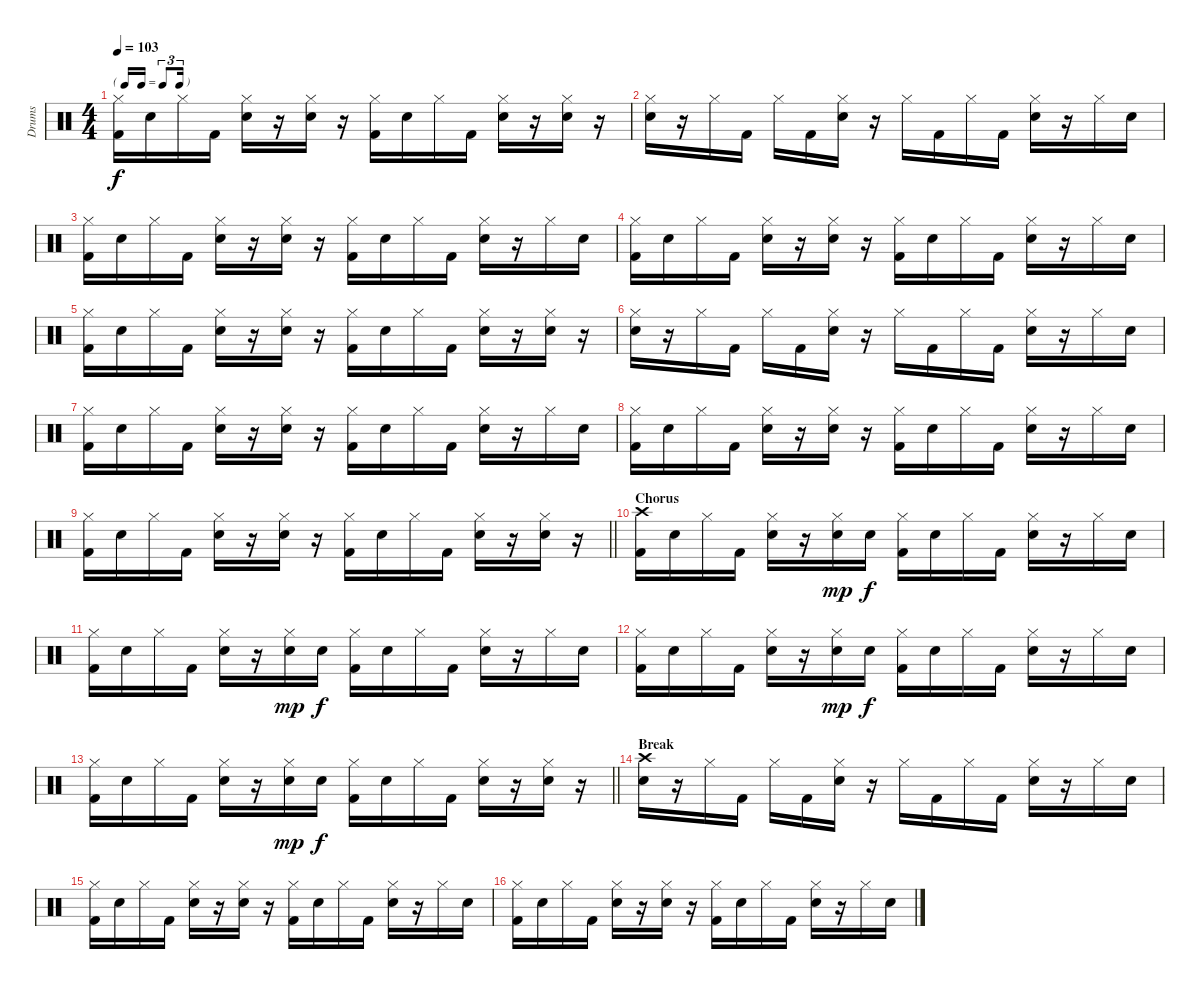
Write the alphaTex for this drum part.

\track ("Drums" "Drums") {instrument percussion}
\staff {score}
\articulation defaults
\ts (4 4)
\tf triplet16th
\tempo 103
\clef neutral
\ks c
("Hi-Hat (closed)" "Kick (hit) 2").16{dy f} "Electric Snare (hit)".16 "Hi-Hat (closed)".16 "Kick (hit) 2".16 ("Hi-Hat (closed)" "Electric Snare (hit)").16 r.16 ("Hi-Hat (closed)" "Electric Snare (hit)").16 r.16 ("Hi-Hat (closed)" "Kick (hit) 2").16 "Electric Snare (hit)".16 "Hi-Hat (closed)".16 "Kick (hit) 2".16 ("Hi-Hat (closed)" "Electric Snare (hit)").16 r.16 ("Hi-Hat (closed)" "Electric Snare (hit)").16 r.16 |
("Hi-Hat (closed)" "Electric Snare (hit)").16 r.16 "Hi-Hat (closed)".16 "Kick (hit) 2".16 "Hi-Hat (closed)".16 "Kick (hit) 2".16 ("Hi-Hat (closed)" "Electric Snare (hit)").16 r.16 "Hi-Hat (closed)".16 "Kick (hit) 2".16 "Hi-Hat (closed)".16 "Kick (hit) 2".16 ("Hi-Hat (closed)" "Electric Snare (hit)").16 r.16 "Hi-Hat (closed)".16 "Electric Snare (hit)".16 |
("Hi-Hat (closed)" "Kick (hit) 2").16 "Electric Snare (hit)".16 "Hi-Hat (closed)".16 "Kick (hit) 2".16 ("Hi-Hat (closed)" "Electric Snare (hit)").16 r.16 ("Hi-Hat (closed)" "Electric Snare (hit)").16 r.16 ("Hi-Hat (closed)" "Kick (hit) 2").16 "Electric Snare (hit)".16 "Hi-Hat (closed)".16 "Kick (hit) 2".16 ("Hi-Hat (closed)" "Electric Snare (hit)").16 r.16 "Hi-Hat (closed)".16 "Electric Snare (hit)".16 |
("Hi-Hat (closed)" "Kick (hit) 2").16 "Electric Snare (hit)".16 "Hi-Hat (closed)".16 "Kick (hit) 2".16 ("Hi-Hat (closed)" "Electric Snare (hit)").16 r.16 ("Hi-Hat (closed)" "Electric Snare (hit)").16 r.16 ("Hi-Hat (closed)" "Kick (hit) 2").16 "Electric Snare (hit)".16 "Hi-Hat (closed)".16 "Kick (hit) 2".16 ("Hi-Hat (closed)" "Electric Snare (hit)").16 r.16 "Hi-Hat (closed)".16 "Electric Snare (hit)".16 |
("Hi-Hat (closed)" "Kick (hit) 2").16 "Electric Snare (hit)".16 "Hi-Hat (closed)".16 "Kick (hit) 2".16 ("Hi-Hat (closed)" "Electric Snare (hit)").16 r.16 ("Hi-Hat (closed)" "Electric Snare (hit)").16 r.16 ("Hi-Hat (closed)" "Kick (hit) 2").16 "Electric Snare (hit)".16 "Hi-Hat (closed)".16 "Kick (hit) 2".16 ("Hi-Hat (closed)" "Electric Snare (hit)").16 r.16 ("Hi-Hat (closed)" "Electric Snare (hit)").16 r.16 |
("Hi-Hat (closed)" "Electric Snare (hit)").16 r.16 "Hi-Hat (closed)".16 "Kick (hit) 2".16 "Hi-Hat (closed)".16 "Kick (hit) 2".16 ("Hi-Hat (closed)" "Electric Snare (hit)").16 r.16 "Hi-Hat (closed)".16 "Kick (hit) 2".16 "Hi-Hat (closed)".16 "Kick (hit) 2".16 ("Hi-Hat (closed)" "Electric Snare (hit)").16 r.16 "Hi-Hat (closed)".16 "Electric Snare (hit)".16 |
("Hi-Hat (closed)" "Kick (hit) 2").16 "Electric Snare (hit)".16 "Hi-Hat (closed)".16 "Kick (hit) 2".16 ("Hi-Hat (closed)" "Electric Snare (hit)").16 r.16 ("Hi-Hat (closed)" "Electric Snare (hit)").16 r.16 ("Hi-Hat (closed)" "Kick (hit) 2").16 "Electric Snare (hit)".16 "Hi-Hat (closed)".16 "Kick (hit) 2".16 ("Hi-Hat (closed)" "Electric Snare (hit)").16 r.16 "Hi-Hat (closed)".16 "Electric Snare (hit)".16 |
("Hi-Hat (closed)" "Kick (hit) 2").16 "Electric Snare (hit)".16 "Hi-Hat (closed)".16 "Kick (hit) 2".16 ("Hi-Hat (closed)" "Electric Snare (hit)").16 r.16 ("Hi-Hat (closed)" "Electric Snare (hit)").16 r.16 ("Hi-Hat (closed)" "Kick (hit) 2").16 "Electric Snare (hit)".16 "Hi-Hat (closed)".16 "Kick (hit) 2".16 ("Hi-Hat (closed)" "Electric Snare (hit)").16 r.16 "Hi-Hat (closed)".16 "Electric Snare (hit)".16 |
\barLineRight lightlight
("Hi-Hat (closed)" "Kick (hit) 2").16 "Electric Snare (hit)".16 "Hi-Hat (closed)".16 "Kick (hit) 2".16 ("Hi-Hat (closed)" "Electric Snare (hit)").16 r.16 ("Hi-Hat (closed)" "Electric Snare (hit)").16 r.16 ("Hi-Hat (closed)" "Kick (hit) 2").16 "Electric Snare (hit)".16 "Hi-Hat (closed)".16 "Kick (hit) 2".16 ("Hi-Hat (closed)" "Electric Snare (hit)").16 r.16 ("Hi-Hat (closed)" "Electric Snare (hit)").16 r.16 |
\section ("" "Chorus")
("Crash high (hit)" "Kick (hit) 2").16 "Electric Snare (hit)".16 "Hi-Hat (closed)".16 "Kick (hit) 2".16 ("Hi-Hat (closed)" "Electric Snare (hit)").16 r.16 ("Hi-Hat (closed)" "Electric Snare (hit)").16{dy mp} "Electric Snare (hit)".16{dy f} ("Hi-Hat (closed)" "Kick (hit) 2").16 "Electric Snare (hit)".16 "Hi-Hat (closed)".16 "Kick (hit) 2".16 ("Hi-Hat (closed)" "Electric Snare (hit)").16 r.16 "Hi-Hat (closed)".16 "Electric Snare (hit)".16 |
("Hi-Hat (closed)" "Kick (hit) 2").16 "Electric Snare (hit)".16 "Hi-Hat (closed)".16 "Kick (hit) 2".16 ("Hi-Hat (closed)" "Electric Snare (hit)").16 r.16 ("Hi-Hat (closed)" "Electric Snare (hit)").16{dy mp} "Electric Snare (hit)".16{dy f} ("Hi-Hat (closed)" "Kick (hit) 2").16 "Electric Snare (hit)".16 "Hi-Hat (closed)".16 "Kick (hit) 2".16 ("Hi-Hat (closed)" "Electric Snare (hit)").16 r.16 "Hi-Hat (closed)".16 "Electric Snare (hit)".16 |
("Hi-Hat (closed)" "Kick (hit) 2").16 "Electric Snare (hit)".16 "Hi-Hat (closed)".16 "Kick (hit) 2".16 ("Hi-Hat (closed)" "Electric Snare (hit)").16 r.16 ("Hi-Hat (closed)" "Electric Snare (hit)").16{dy mp} "Electric Snare (hit)".16{dy f} ("Hi-Hat (closed)" "Kick (hit) 2").16 "Electric Snare (hit)".16 "Hi-Hat (closed)".16 "Kick (hit) 2".16 ("Hi-Hat (closed)" "Electric Snare (hit)").16 r.16 "Hi-Hat (closed)".16 "Electric Snare (hit)".16 |
\barLineRight lightlight
("Hi-Hat (closed)" "Kick (hit) 2").16 "Electric Snare (hit)".16 "Hi-Hat (closed)".16 "Kick (hit) 2".16 ("Hi-Hat (closed)" "Electric Snare (hit)").16 r.16 ("Hi-Hat (closed)" "Electric Snare (hit)").16{dy mp} "Electric Snare (hit)".16{dy f} ("Hi-Hat (closed)" "Kick (hit) 2").16 "Electric Snare (hit)".16 "Hi-Hat (closed)".16 "Kick (hit) 2".16 ("Hi-Hat (closed)" "Electric Snare (hit)").16 r.16 ("Hi-Hat (closed)" "Electric Snare (hit)").16 r.16 |
\section ("" "Break")
("Crash high (hit)" "Electric Snare (hit)").16 r.16 "Hi-Hat (closed)".16 "Kick (hit) 2".16 "Hi-Hat (closed)".16 "Kick (hit) 2".16 ("Hi-Hat (closed)" "Electric Snare (hit)").16 r.16 "Hi-Hat (closed)".16 "Kick (hit) 2".16 "Hi-Hat (closed)".16 "Kick (hit) 2".16 ("Hi-Hat (closed)" "Electric Snare (hit)").16 r.16 "Hi-Hat (closed)".16 "Electric Snare (hit)".16 |
("Hi-Hat (closed)" "Kick (hit) 2").16 "Electric Snare (hit)".16 "Hi-Hat (closed)".16 "Kick (hit) 2".16 ("Hi-Hat (closed)" "Electric Snare (hit)").16 r.16 ("Hi-Hat (closed)" "Electric Snare (hit)").16 r.16 ("Hi-Hat (closed)" "Kick (hit) 2").16 "Electric Snare (hit)".16 "Hi-Hat (closed)".16 "Kick (hit) 2".16 ("Hi-Hat (closed)" "Electric Snare (hit)").16 r.16 "Hi-Hat (closed)".16 "Electric Snare (hit)".16 |
("Hi-Hat (closed)" "Kick (hit) 2").16 "Electric Snare (hit)".16 "Hi-Hat (closed)".16 "Kick (hit) 2".16 ("Hi-Hat (closed)" "Electric Snare (hit)").16 r.16 ("Hi-Hat (closed)" "Electric Snare (hit)").16 r.16 ("Hi-Hat (closed)" "Kick (hit) 2").16 "Electric Snare (hit)".16 "Hi-Hat (closed)".16 "Kick (hit) 2".16 ("Hi-Hat (closed)" "Electric Snare (hit)").16 r.16 "Hi-Hat (closed)".16 "Electric Snare (hit)".16
